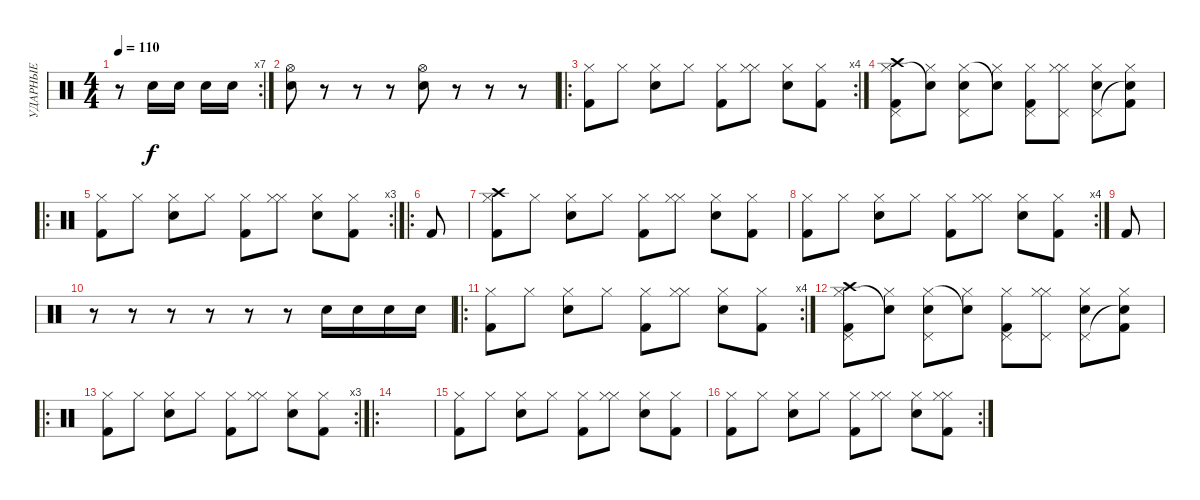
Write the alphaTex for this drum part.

\track ("УДАРНЫЕ" "УДАРНЫЕ") {instrument percussion}
\staff {score}
\articulation defaults
\rc 7
\ts (4 4)
\tempo 110
\clef neutral
\ks c
r.8{dy f} "Snare (hit) 2".16 "Snare (hit) 2".16 "Snare (hit) 2".16 "Snare (hit) 2".16 |
("Hi-Hat (open)" "Snare (hit) 2").8 r.8 r.8 r.8 ("Hi-Hat (open)" "Snare (hit) 2").8 r.8 r.8 r.8 |
\ro
\rc 4
("Kick (hit) 2" "Hi-Hat (closed)").8 "Hi-Hat (closed)".8 ("Snare (hit) 2" "Hi-Hat (closed)").8 "Hi-Hat (closed)".8 ("Kick (hit) 2" "Hi-Hat (closed)").8 ("Hi-Hat (closed)" "Hi-Hat (closed)").8 ("Snare (hit) 2" "Hi-Hat (closed)").8 ("Kick (hit) 2" "Hi-Hat (closed)").8 |
("Kick (hit) 2" "Hi-Hat (closed)" "Crash high (hit)" "Pedal Hi-Hat (hit)").8 ("Hi-Hat (closed)" "Snare (hit)"{t}).8 ("Snare (hit) 2" "Hi-Hat (closed)" "Pedal Hi-Hat (hit)").8 ("Hi-Hat (closed)" "Snare (hit)"{t}).8 ("Kick (hit) 2" "Hi-Hat (closed)" "Pedal Hi-Hat (hit)").8 ("Hi-Hat (closed)" "Hi-Hat (closed)" "Pedal Hi-Hat (hit)").8 ("Snare (hit) 2" "Hi-Hat (closed)" "Pedal Hi-Hat (hit)").8 ("Kick (hit) 2" "Hi-Hat (closed)" "Snare (hit)"{t}).8 |
\ro
\rc 3
("Kick (hit) 2" "Hi-Hat (closed)").8 "Hi-Hat (closed)".8 ("Snare (hit) 2" "Hi-Hat (closed)").8 "Hi-Hat (closed)".8 ("Kick (hit) 2" "Hi-Hat (closed)").8 ("Hi-Hat (closed)" "Hi-Hat (closed)").8 ("Snare (hit) 2" "Hi-Hat (closed)").8 ("Kick (hit) 2" "Hi-Hat (closed)").8 |
\ro "Kick (hit) 2".8
|
("Kick (hit) 2" "Hi-Hat (closed)" "Crash high (hit)").8 "Hi-Hat (closed)".8 ("Snare (hit) 2" "Hi-Hat (closed)").8 "Hi-Hat (closed)".8 ("Kick (hit) 2" "Hi-Hat (closed)").8 ("Hi-Hat (closed)" "Hi-Hat (closed)").8 ("Snare (hit) 2" "Hi-Hat (closed)").8 ("Kick (hit) 2" "Hi-Hat (closed)").8 |
\rc 4
("Kick (hit) 2" "Hi-Hat (closed)").8 "Hi-Hat (closed)".8 ("Snare (hit) 2" "Hi-Hat (closed)").8 "Hi-Hat (closed)".8 ("Kick (hit) 2" "Hi-Hat (closed)").8 ("Hi-Hat (closed)" "Hi-Hat (closed)").8 ("Snare (hit) 2" "Hi-Hat (closed)").8 ("Kick (hit) 2" "Hi-Hat (closed)").8 |
"Kick (hit) 2".8 |
r.8 r.8 r.8 r.8 r.8 r.8 "Snare (hit) 2".16 "Snare (hit) 2".16 "Snare (hit) 2".16 "Snare (hit) 2".16 |
\ro
\rc 4
("Kick (hit) 2" "Hi-Hat (closed)").8 "Hi-Hat (closed)".8 ("Snare (hit) 2" "Hi-Hat (closed)").8 "Hi-Hat (closed)".8 ("Kick (hit) 2" "Hi-Hat (closed)").8 ("Hi-Hat (closed)" "Hi-Hat (closed)").8 ("Snare (hit) 2" "Hi-Hat (closed)").8 ("Kick (hit) 2" "Hi-Hat (closed)").8 |
("Kick (hit) 2" "Hi-Hat (closed)" "Crash high (hit)" "Pedal Hi-Hat (hit)").8 ("Hi-Hat (closed)" "Snare (hit)"{t}).8 ("Snare (hit) 2" "Hi-Hat (closed)" "Pedal Hi-Hat (hit)").8 ("Hi-Hat (closed)" "Snare (hit)"{t}).8 ("Kick (hit) 2" "Hi-Hat (closed)" "Pedal Hi-Hat (hit)").8 ("Hi-Hat (closed)" "Hi-Hat (closed)" "Pedal Hi-Hat (hit)").8 ("Snare (hit) 2" "Hi-Hat (closed)" "Pedal Hi-Hat (hit)").8 ("Kick (hit) 2" "Hi-Hat (closed)" "Snare (hit)"{t}).8 |
\ro
\rc 3
("Kick (hit) 2" "Hi-Hat (closed)").8 "Hi-Hat (closed)".8 ("Snare (hit) 2" "Hi-Hat (closed)").8 "Hi-Hat (closed)".8 ("Kick (hit) 2" "Hi-Hat (closed)").8 ("Hi-Hat (closed)" "Hi-Hat (closed)").8 ("Snare (hit) 2" "Hi-Hat (closed)").8 ("Kick (hit) 2" "Hi-Hat (closed)").8 |
\ro
|
("Kick (hit) 2" "Hi-Hat (closed)").8 "Hi-Hat (closed)".8 ("Snare (hit) 2" "Hi-Hat (closed)").8 "Hi-Hat (closed)".8 ("Kick (hit) 2" "Hi-Hat (closed)").8 ("Hi-Hat (closed)" "Hi-Hat (closed)").8 ("Snare (hit) 2" "Hi-Hat (closed)").8 ("Kick (hit) 2" "Hi-Hat (closed)").8 |
\rc 2
("Kick (hit) 2" "Hi-Hat (closed)").8 "Hi-Hat (closed)".8 ("Snare (hit) 2" "Hi-Hat (closed)").8 "Hi-Hat (closed)".8 ("Kick (hit) 2" "Hi-Hat (closed)").8 ("Hi-Hat (closed)" "Hi-Hat (closed)").8 ("Snare (hit) 2" "Hi-Hat (closed)").8 ("Kick (hit) 2" "Hi-Hat (closed)" "Hi-Hat (closed)").8
